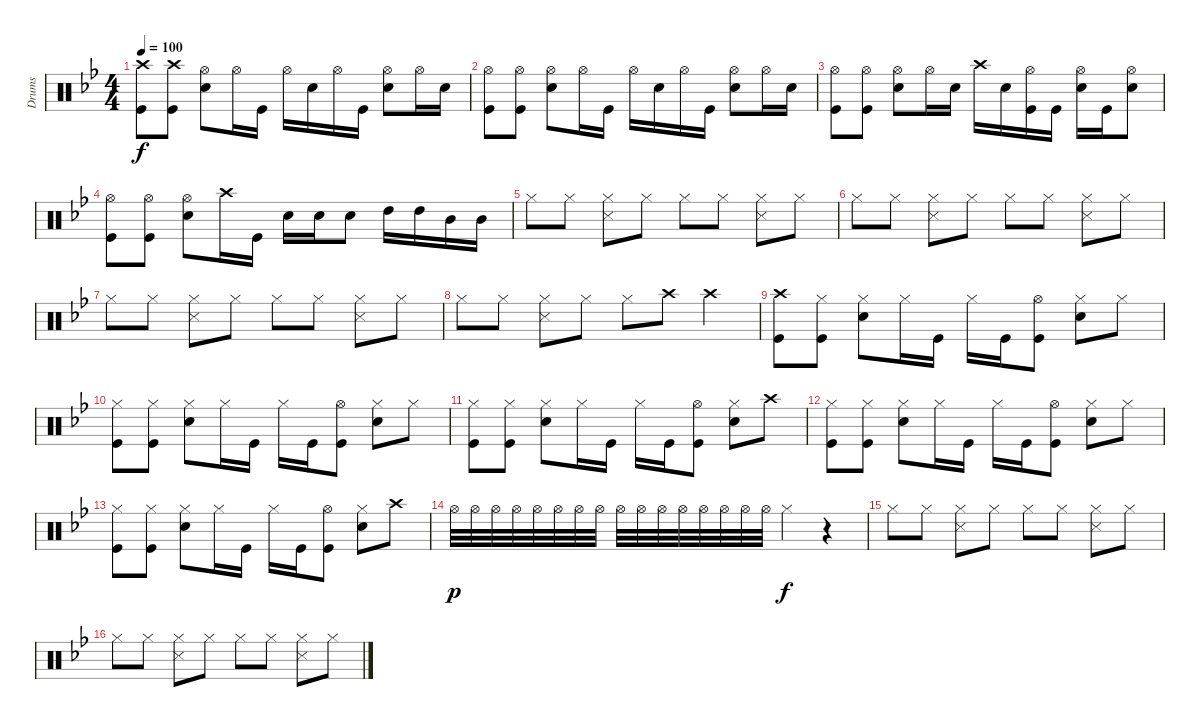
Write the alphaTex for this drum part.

\track ("Drums" "Drums") {instrument percussion}
\staff {score}
\articulation defaults
\ts (4 4)
\tempo 100
\clef neutral
\ks gminor
("Crash high (hit)" "Kick (hit)").8{dy f} ("Crash high (hit)" "Kick (hit)").8 ("Hi-Hat (open)" "Snare (hit) 2").8 "Hi-Hat (open)".16 "Kick (hit)".16 "Hi-Hat (open)".16 "Snare (hit) 2".16 "Hi-Hat (open)".16 "Kick (hit)".16 ("Hi-Hat (open)" "Snare (hit) 2").8 "Hi-Hat (open)".16 "Snare (hit) 2".16 |
("Hi-Hat (open)" "Kick (hit)").8 ("Hi-Hat (open)" "Kick (hit)").8 ("Hi-Hat (open)" "Snare (hit) 2").8 "Hi-Hat (open)".16 "Kick (hit)".16 "Hi-Hat (open)".16 "Snare (hit) 2".16 "Hi-Hat (open)".16 "Kick (hit)".16 ("Hi-Hat (open)" "Snare (hit) 2").8 "Hi-Hat (open)".16 "Snare (hit) 2".16 |
("Hi-Hat (open)" "Kick (hit)").8 ("Hi-Hat (open)" "Kick (hit)").8 ("Hi-Hat (open)" "Snare (hit) 2").8 "Hi-Hat (open)".16 "Snare (hit) 2".16 "Crash high (hit)".16 "Snare (hit) 2".16 ("Hi-Hat (open)" "Kick (hit)").16 "Kick (hit)".16 ("Hi-Hat (open)" "Snare (hit) 2").16 "Kick (hit)".16 ("Hi-Hat (open)" "Snare (hit) 2").8 |
("Hi-Hat (open)" "Kick (hit)").8 ("Hi-Hat (open)" "Kick (hit)").8 ("Hi-Hat (open)" "Snare (hit) 2").8 "Crash high (hit)".16 "Kick (hit)".16 "Snare (hit) 2".16 "Snare (hit) 2".16 "Snare (hit) 2".8 "High Tom (hit)".16 "High Tom (hit)".16 "Mid Tom (hit)".16 "Mid Tom (hit)".16 |
\ks bb "Hi-Hat (closed)".8 "Hi-Hat (closed)".8
("Hi-Hat (closed)" "Snare (side stick) 3").8 "Hi-Hat (closed)".8 "Hi-Hat (closed)".8 "Hi-Hat (closed)".8 ("Hi-Hat (closed)" "Snare (side stick) 3").8 "Hi-Hat (closed)".8 |
"Hi-Hat (closed)".8 "Hi-Hat (closed)".8 ("Hi-Hat (closed)" "Snare (side stick) 3").8 "Hi-Hat (closed)".8 "Hi-Hat (closed)".8 "Hi-Hat (closed)".8 ("Hi-Hat (closed)" "Snare (side stick) 3").8 "Hi-Hat (closed)".8 |
"Hi-Hat (closed)".8 "Hi-Hat (closed)".8 ("Hi-Hat (closed)" "Snare (side stick) 3").8 "Hi-Hat (closed)".8 "Hi-Hat (closed)".8 "Hi-Hat (closed)".8 ("Hi-Hat (closed)" "Snare (side stick) 3").8 "Hi-Hat (closed)".8 |
"Hi-Hat (closed)".8 "Hi-Hat (closed)".8 ("Hi-Hat (closed)" "Snare (side stick) 3").8 "Hi-Hat (closed)".8 "Hi-Hat (closed)".8 "Crash high (hit)".8 "Crash high (hit)".4 |
("Crash high (hit)" "Kick (hit)").8 ("Hi-Hat (closed)" "Kick (hit)").8 ("Hi-Hat (closed)" "Snare (hit) 2").8 "Hi-Hat (closed)".16 "Kick (hit)".16 "Hi-Hat (closed)".16 "Kick (hit)".16 ("Hi-Hat (open)" "Kick (hit)").8 ("Hi-Hat (closed)" "Snare (hit) 2").8 "Hi-Hat (closed)".8 |
("Hi-Hat (closed)" "Kick (hit)").8 ("Hi-Hat (closed)" "Kick (hit)").8 ("Hi-Hat (closed)" "Snare (hit) 2").8 "Hi-Hat (closed)".16 "Kick (hit)".16 "Hi-Hat (closed)".16 "Kick (hit)".16 ("Hi-Hat (open)" "Kick (hit)").8 ("Hi-Hat (closed)" "Snare (hit) 2").8 "Hi-Hat (closed)".8 |
("Hi-Hat (closed)" "Kick (hit)").8 ("Hi-Hat (closed)" "Kick (hit)").8 ("Hi-Hat (closed)" "Snare (hit) 2").8 "Hi-Hat (closed)".16 "Kick (hit)".16 "Hi-Hat (closed)".16 "Kick (hit)".16 ("Hi-Hat (open)" "Kick (hit)").8 ("Hi-Hat (closed)" "Snare (hit) 2").8 "Crash high (hit)".8 |
("Hi-Hat (closed)" "Kick (hit)").8 ("Hi-Hat (closed)" "Kick (hit)").8 ("Hi-Hat (closed)" "Snare (hit) 2").8 "Hi-Hat (closed)".16 "Kick (hit)".16 "Hi-Hat (closed)".16 "Kick (hit)".16 ("Hi-Hat (open)" "Kick (hit)").8 ("Hi-Hat (closed)" "Snare (hit) 2").8 "Hi-Hat (closed)".8 |
("Hi-Hat (closed)" "Kick (hit)").8 ("Hi-Hat (closed)" "Kick (hit)").8 ("Hi-Hat (closed)" "Snare (hit) 2").8 "Hi-Hat (closed)".16 "Kick (hit)".16 "Hi-Hat (closed)".16 "Kick (hit)".16 ("Hi-Hat (open)" "Kick (hit)").8 ("Hi-Hat (closed)" "Snare (hit) 2").8 "Crash high (hit)".8 |
"Hi-Hat (open)".32{dy p} "Hi-Hat (open)".32 "Hi-Hat (open)".32 "Hi-Hat (open)".32 "Hi-Hat (open)".32 "Hi-Hat (open)".32 "Hi-Hat (open)".32 "Hi-Hat (open)".32 "Hi-Hat (open)".32 "Hi-Hat (open)".32 "Hi-Hat (open)".32 "Hi-Hat (open)".32 "Hi-Hat (open)".32 "Hi-Hat (open)".32 "Hi-Hat (open)".32 "Hi-Hat (open)".32 "Hi-Hat (closed)".4{dy f} r.4 |
"Hi-Hat (closed)".8 "Hi-Hat (closed)".8 ("Hi-Hat (closed)" "Snare (side stick) 3").8 "Hi-Hat (closed)".8 "Hi-Hat (closed)".8 "Hi-Hat (closed)".8 ("Hi-Hat (closed)" "Snare (side stick) 3").8 "Hi-Hat (closed)".8 |
"Hi-Hat (closed)".8 "Hi-Hat (closed)".8 ("Hi-Hat (closed)" "Snare (side stick) 3").8 "Hi-Hat (closed)".8 "Hi-Hat (closed)".8 "Hi-Hat (closed)".8 ("Hi-Hat (closed)" "Snare (side stick) 3").8 "Hi-Hat (closed)".8
